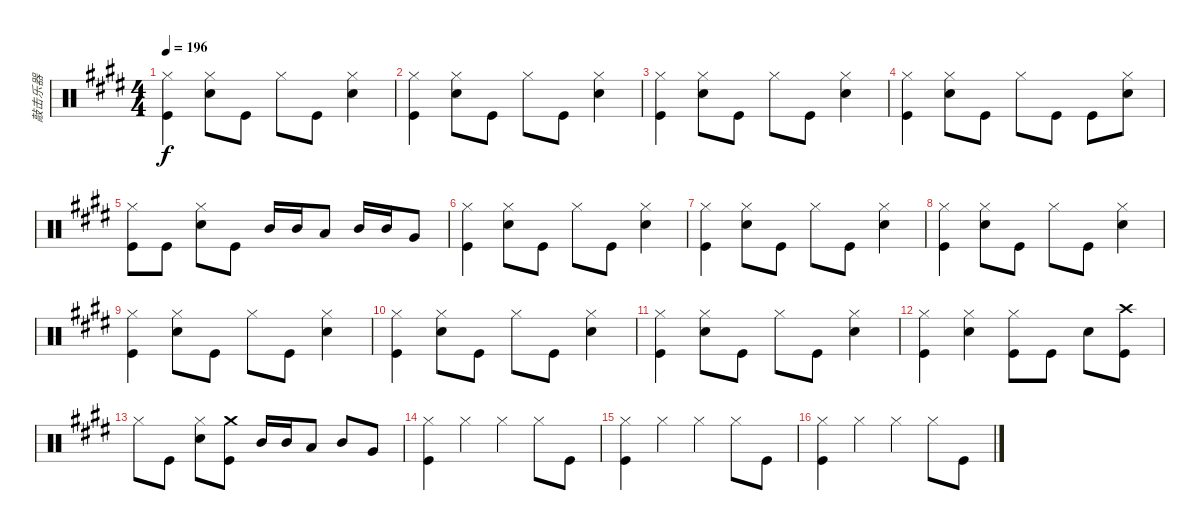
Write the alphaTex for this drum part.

\track ("敲击乐器" "敲击乐器") {instrument percussion}
\staff {score}
\articulation defaults
\ts (4 4)
\tempo 196
\clef neutral
\ks c#minor
("Hi-Hat (closed)" "Kick (hit)").4{dy f} ("Hi-Hat (closed)" "Snare (hit) 2").8 "Kick (hit)".8 "Hi-Hat (closed)".8 "Kick (hit)".8 ("Hi-Hat (closed)" "Snare (hit) 2").4 |
\ks e
("Hi-Hat (closed)" "Kick (hit)").4 ("Hi-Hat (closed)" "Snare (hit) 2").8 "Kick (hit)".8 "Hi-Hat (closed)".8 "Kick (hit)".8 ("Hi-Hat (closed)" "Snare (hit) 2").4 |
\ks c#minor
("Hi-Hat (closed)" "Kick (hit)").4 ("Hi-Hat (closed)" "Snare (hit) 2").8 "Kick (hit)".8 "Hi-Hat (closed)".8 "Kick (hit)".8 ("Hi-Hat (closed)" "Snare (hit) 2").4 |
("Hi-Hat (closed)" "Kick (hit)").4 ("Hi-Hat (closed)" "Snare (hit) 2").8 "Kick (hit)".8 "Hi-Hat (closed)".8 "Kick (hit)".8 "Kick (hit)".8 ("Hi-Hat (closed)" "Snare (hit) 2").8 |
("Hi-Hat (closed)" "Kick (hit)").8 "Kick (hit)".8 ("Hi-Hat (closed)" "Snare (hit) 2").8 "Kick (hit)".8 "Mid Tom (hit)".16 "Mid Tom (hit)".16 "Low Tom (hit)".8 "Mid Tom (hit)".16 "Mid Tom (hit)".16 "Very Low Tom (hit)".8 |
\ks e
("Hi-Hat (closed)" "Kick (hit)").4 ("Hi-Hat (closed)" "Snare (hit) 2").8 "Kick (hit)".8 "Hi-Hat (closed)".8 "Kick (hit)".8 ("Hi-Hat (closed)" "Snare (hit) 2").4 |
\ks c#minor
("Hi-Hat (closed)" "Kick (hit)").4 ("Hi-Hat (closed)" "Snare (hit) 2").8 "Kick (hit)".8 "Hi-Hat (closed)".8 "Kick (hit)".8 ("Hi-Hat (closed)" "Snare (hit) 2").4 |
("Hi-Hat (closed)" "Kick (hit)").4 ("Hi-Hat (closed)" "Snare (hit) 2").8 "Kick (hit)".8 "Hi-Hat (closed)".8 "Kick (hit)".8 ("Hi-Hat (closed)" "Snare (hit) 2").4 |
("Hi-Hat (closed)" "Kick (hit)").4 ("Hi-Hat (closed)" "Snare (hit) 2").8 "Kick (hit)".8 "Hi-Hat (closed)".8 "Kick (hit)".8 ("Hi-Hat (closed)" "Snare (hit) 2").4 |
\ks e
("Hi-Hat (closed)" "Kick (hit)").4 ("Hi-Hat (closed)" "Snare (hit) 2").8 "Kick (hit)".8 "Hi-Hat (closed)".8 "Kick (hit)".8 ("Hi-Hat (closed)" "Snare (hit) 2").4 |
\ks c#minor
("Hi-Hat (closed)" "Kick (hit)").4 ("Hi-Hat (closed)" "Snare (hit) 2").8 "Kick (hit)".8 "Hi-Hat (closed)".8 "Kick (hit)".8 ("Hi-Hat (closed)" "Snare (hit) 2").4 |
("Hi-Hat (closed)" "Kick (hit)").4 ("Hi-Hat (closed)" "Snare (hit) 2").4 ("Hi-Hat (closed)" "Kick (hit)").8 "Kick (hit)".8 "Snare (hit) 2".8 ("Crash high (hit)" "Kick (hit)").8 |
"Hi-Hat (closed)".8 "Kick (hit)".8 ("Hi-Hat (closed)" "Snare (hit) 2").8 ("Crash medium (hit)" "Kick (hit)").8 "Mid Tom (hit)".16 "Mid Tom (hit)".16 "Low Tom (hit)".8 "Mid Tom (hit)".8 "Very Low Tom (hit)".8 |
("Hi-Hat (closed)" "Kick (hit)").4 "Hi-Hat (closed)".4 "Hi-Hat (closed)".4 "Hi-Hat (closed)".8 "Kick (hit)".8 |
("Hi-Hat (closed)" "Kick (hit)").4 "Hi-Hat (closed)".4 "Hi-Hat (closed)".4 "Hi-Hat (closed)".8 "Kick (hit)".8 |
("Hi-Hat (closed)" "Kick (hit)").4 "Hi-Hat (closed)".4 "Hi-Hat (closed)".4 "Hi-Hat (closed)".8 "Kick (hit)".8
